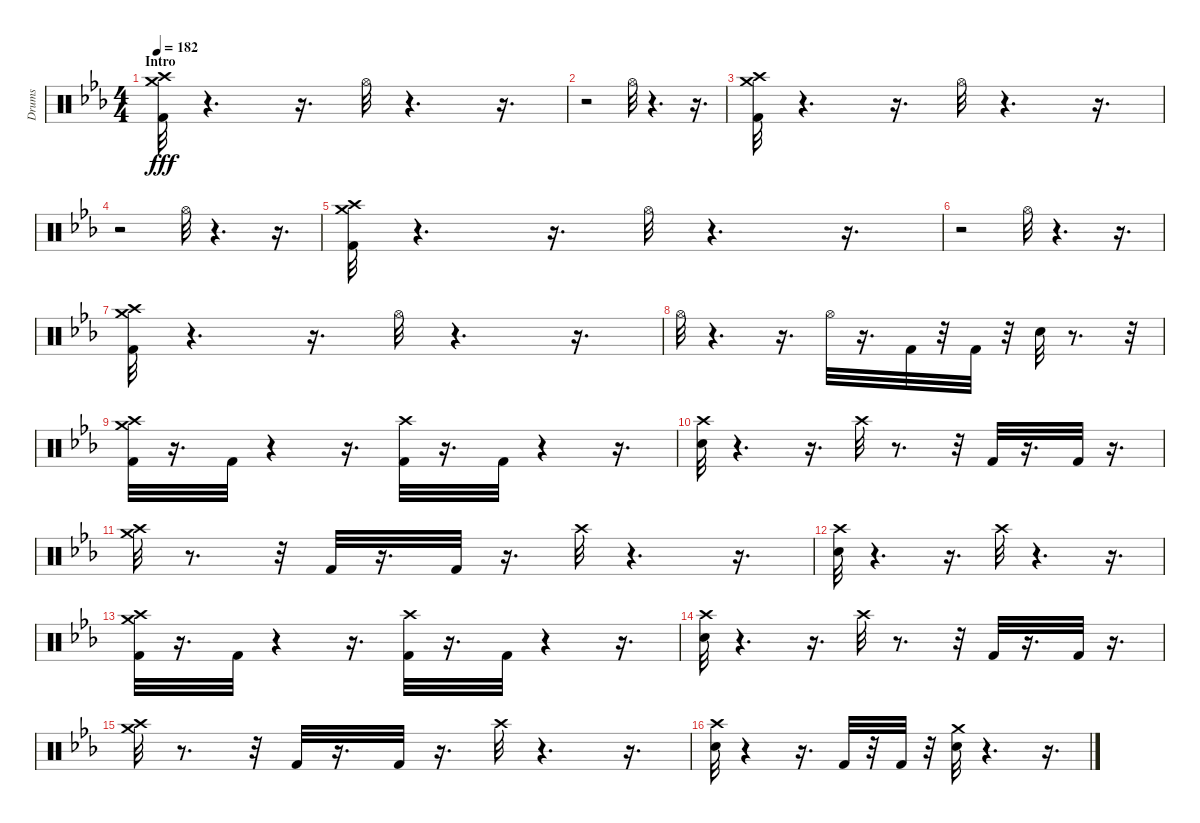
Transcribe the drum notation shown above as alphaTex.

\track ("Drums" "Drums") {instrument percussion}
\staff {score}
\articulation defaults
\ts (4 4)
\section ("" "Intro")
\tempo 182
\clef neutral
\ks cminor
("Crash medium (hit)" "Crash high (hit)" "Kick (hit) 2").32{dy fff} r.4{d} r.16{d} "Hi-Hat (open)".32 r.4{d} r.16{d} |
r.2 "Hi-Hat (open)".32 r.4{d} r.16{d} |
("Crash medium (hit)" "Crash high (hit)" "Kick (hit) 2").32 r.4{d} r.16{d} "Hi-Hat (open)".32 r.4{d} r.16{d} |
r.2 "Hi-Hat (open)".32 r.4{d} r.16{d} |
("Crash medium (hit)" "Crash high (hit)" "Kick (hit) 2").32 r.4{d} r.16{d} "Hi-Hat (open)".32 r.4{d} r.16{d} |
r.2 "Hi-Hat (open)".32 r.4{d} r.16{d} |
("Crash medium (hit)" "Crash high (hit)" "Kick (hit) 2").32 r.4{d} r.16{d} "Hi-Hat (open)".32 r.4{d} r.16{d} |
"Hi-Hat (open)".32 r.4{d} r.16{d} "Hi-Hat (open)".32 r.16{d} "Kick (hit) 2".32 r.32 "Kick (hit) 2".32 r.32 "Snare (hit) 2".32 r.8{d} r.32 |
("Crash medium (hit)" "Crash high (hit)" "Kick (hit) 2").32 r.16{d} "Kick (hit) 2".32 r.4 r.16{d} ("Kick (hit) 2" "Crash high (hit)").32 r.16{d} "Kick (hit) 2".32 r.4 r.16{d} |
("Snare (hit) 2" "Crash high (hit)").32 r.4{d} r.16{d} "Crash high (hit)".32 r.8{d} r.32 "Kick (hit) 2".32 r.16{d} "Kick (hit) 2".32 r.16{d} |
("Crash medium (hit)" "Crash high (hit)").32 r.8{d} r.32 "Kick (hit) 2".32 r.16{d} "Kick (hit) 2".32 r.16{d} "Crash high (hit)".32 r.4{d} r.16{d} |
("Snare (hit) 2" "Crash high (hit)").32 r.4{d} r.16{d} "Crash high (hit)".32 r.4{d} r.16{d} |
("Crash medium (hit)" "Crash high (hit)" "Kick (hit) 2").32 r.16{d} "Kick (hit) 2".32 r.4 r.16{d} ("Kick (hit) 2" "Crash high (hit)").32 r.16{d} "Kick (hit) 2".32 r.4 r.16{d} |
("Snare (hit) 2" "Crash high (hit)").32 r.4{d} r.16{d} "Crash high (hit)".32 r.8{d} r.32 "Kick (hit) 2".32 r.16{d} "Kick (hit) 2".32 r.16{d} |
("Crash medium (hit)" "Crash high (hit)").32 r.8{d} r.32 "Kick (hit) 2".32 r.16{d} "Kick (hit) 2".32 r.16{d} "Crash high (hit)".32 r.4{d} r.16{d} |
("Snare (hit) 2" "Crash high (hit)").32 r.4 r.16{d} "Kick (hit) 2".32 r.32 "Kick (hit) 2".32 r.32 ("Crash medium (hit)" "Snare (hit) 2").32 r.4{d} r.16{d}
